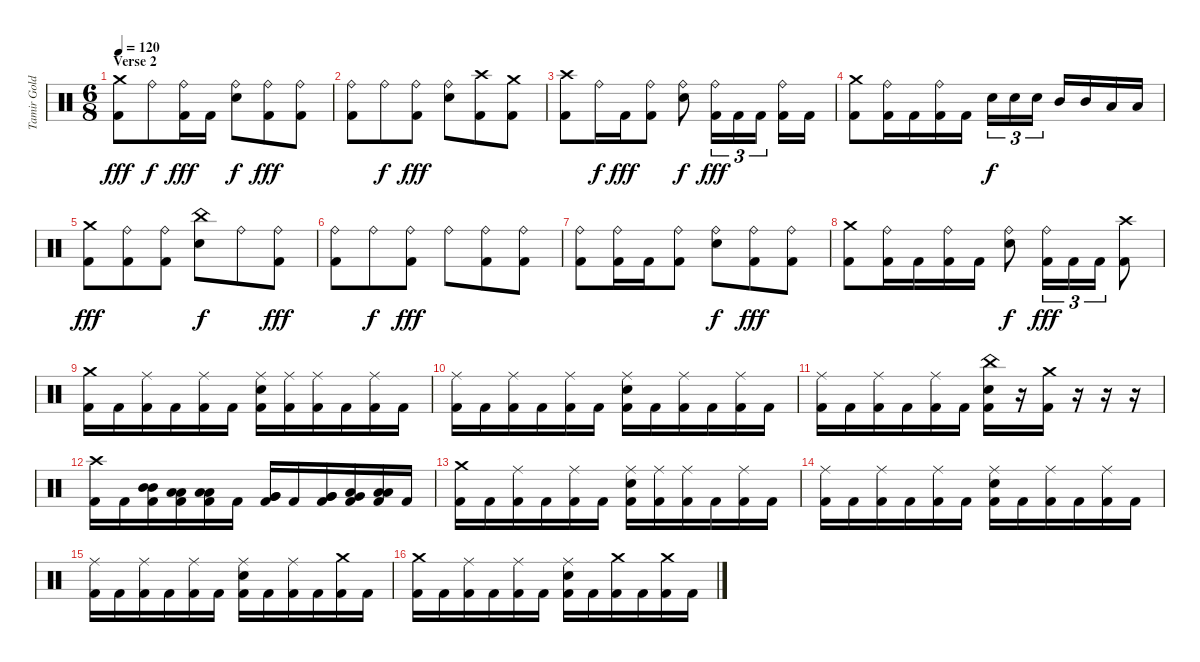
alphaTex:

\track ("Tamir Goldberg" "Tamir Gold") {instrument percussion}
\staff {score}
\articulation defaults
\ts (6 8)
\section ("" "Verse 2")
\tempo 120
\clef neutral
\ks c
("Crash medium (hit)" "Kick (hit) 2").8{dy fff} "Ride (bell)".8{dy f} ("Ride (bell)" "Kick (hit) 2").16{dy fff} "Kick (hit) 2".16 ("Ride (bell)" "Electric Snare (hit)").8{dy f} ("Ride (bell)" "Kick (hit) 2").8{dy fff} ("Ride (bell)" "Kick (hit) 2").8 |
("Ride (bell)" "Kick (hit) 2").8 "Ride (bell)".8{dy f} ("Ride (bell)" "Kick (hit) 2").8{dy fff} ("Ride (bell)" "Electric Snare (hit)").8 ("Crash high (hit)" "Kick (hit) 2").8 ("Crash medium (hit)" "Kick (hit) 2").8 |
("Crash high (hit)" "Kick (hit) 2").8 "Ride (bell)".16{dy f} "Kick (hit) 2".16{dy fff} ("Ride (bell)" "Kick (hit) 2").8 ("Ride (bell)" "Electric Snare (hit)").8{dy f} ("Ride (bell)" "Kick (hit) 2").16{tu (3 2) dy fff} "Kick (hit) 2".16{tu (3 2)} "Kick (hit) 2".16{tu (3 2)} ("Ride (bell)" "Kick (hit) 2").16 "Kick (hit) 2".16 |
("Crash medium (hit)" "Kick (hit) 2").8 ("Ride (bell)" "Kick (hit) 2").16 "Kick (hit) 2".16 ("Ride (bell)" "Kick (hit) 2").16 "Kick (hit) 2".16 "Electric Snare (hit)".16{tu (3 2) dy f} "Electric Snare (hit)".16{tu (3 2)} "Electric Snare (hit)".16{tu (3 2)} "Mid Tom (hit)".16 "Mid Tom (hit)".16 "Low Tom (hit)".16 "Low Tom (hit)".16 |
("Crash medium (hit)" "Kick (hit) 2").8{dy fff} ("Ride (bell)" "Kick (hit) 2").8 ("Ride (bell)" "Kick (hit) 2").8 ("China (hit)" "Electric Snare (hit)").8{dy f} "Ride (bell)".8 ("Ride (bell)" "Kick (hit) 2").8{dy fff} |
("Ride (bell)" "Kick (hit) 2").8 "Ride (bell)".8{dy f} ("Ride (bell)" "Kick (hit) 2").8{dy fff} "Ride (bell)".8 ("Ride (bell)" "Kick (hit) 2").8 ("Ride (bell)" "Kick (hit) 2").8 |
("Ride (bell)" "Kick (hit) 2").8 ("Ride (bell)" "Kick (hit) 2").16 "Kick (hit) 2".16 ("Ride (bell)" "Kick (hit) 2").8 ("Ride (bell)" "Electric Snare (hit)").8{dy f} ("Ride (bell)" "Kick (hit) 2").8{dy fff} ("Ride (bell)" "Kick (hit) 2").8 |
("Crash medium (hit)" "Kick (hit) 2").8 ("Ride (bell)" "Kick (hit) 2").16 "Kick (hit) 2".16 ("Ride (bell)" "Kick (hit) 2").16 "Kick (hit) 2".16 ("Ride (bell)" "Electric Snare (hit)").8{dy f} ("Ride (bell)" "Kick (hit) 2").16{tu (3 2) dy fff} "Kick (hit) 2".16{tu (3 2)} "Kick (hit) 2".16{tu (3 2)} ("Crash high (hit)" "Kick (hit) 2").8 |
("Crash medium (hit)" "Kick (hit) 2").16 "Kick (hit) 2".16 ("Ride (middle)" "Kick (hit) 2").16 "Kick (hit) 2".16 ("Ride (middle)" "Kick (hit) 2").16 "Kick (hit) 2".16 ("Ride (middle)" "Electric Snare (hit)" "Kick (hit) 2").16 ("Ride (middle)" "Kick (hit) 2").16 ("Ride (middle)" "Kick (hit) 2").16 "Kick (hit) 2".16 ("Ride (middle)" "Kick (hit) 2").16 "Kick (hit) 2".16 |
("Ride (middle)" "Kick (hit) 2").16 "Kick (hit) 2".16 ("Ride (middle)" "Kick (hit) 2").16 "Kick (hit) 2".16 ("Ride (middle)" "Kick (hit) 2").16 "Kick (hit) 2".16 ("Ride (middle)" "Electric Snare (hit)" "Kick (hit) 2").16 "Kick (hit) 2".16 ("Ride (middle)" "Kick (hit) 2").16 "Kick (hit) 2".16 ("Ride (middle)" "Kick (hit) 2").16 "Kick (hit) 2".16 |
("Ride (middle)" "Kick (hit) 2").16 "Kick (hit) 2".16 ("Ride (middle)" "Kick (hit) 2").16 "Kick (hit) 2".16 ("Ride (middle)" "Kick (hit) 2").16 "Kick (hit) 2".16 ("China (hit)" "Electric Snare (hit)" "Kick (hit) 2").16 r.16 ("Crash medium (hit)" "Kick (hit) 2").16 r.16 r.16 r.16 |
("Crash high (hit)" "Kick (hit) 2").16 "Kick (hit) 2".16 ("Mid Tom (hit)" "Mid Tom (hit)" "Kick (hit) 2").16 ("Low Tom (hit)" "Low Tom (hit)" "Kick (hit) 2").16 ("Low Tom (hit)" "Low Tom (hit)" "Kick (hit) 2").16 "Kick (hit) 2".16 ("Very Low Tom (hit)" "Very Low Tom (hit)" "Kick (hit) 2").16 "Kick (hit) 2".16 ("Very Low Tom (hit)" "Very Low Tom (hit)" "Kick (hit) 2").16 ("Very Low Tom (hit)" "Low Tom (hit)" "Kick (hit) 2").16 ("Low Tom (hit)" "Low Tom (hit)" "Kick (hit) 2").16 "Kick (hit) 2".16 |
("Crash medium (hit)" "Kick (hit) 2").16 "Kick (hit) 2".16 ("Ride (middle)" "Kick (hit) 2").16 "Kick (hit) 2".16 ("Ride (middle)" "Kick (hit) 2").16 "Kick (hit) 2".16 ("Ride (middle)" "Electric Snare (hit)" "Kick (hit) 2").16 ("Ride (middle)" "Kick (hit) 2").16 ("Ride (middle)" "Kick (hit) 2").16 "Kick (hit) 2".16 ("Ride (middle)" "Kick (hit) 2").16 "Kick (hit) 2".16 |
("Ride (middle)" "Kick (hit) 2").16 "Kick (hit) 2".16 ("Ride (middle)" "Kick (hit) 2").16 "Kick (hit) 2".16 ("Ride (middle)" "Kick (hit) 2").16 "Kick (hit) 2".16 ("Ride (middle)" "Electric Snare (hit)" "Kick (hit) 2").16 "Kick (hit) 2".16 ("Ride (middle)" "Kick (hit) 2").16 "Kick (hit) 2".16 ("Ride (middle)" "Kick (hit) 2").16 "Kick (hit) 2".16 |
("Ride (middle)" "Kick (hit) 2").16 "Kick (hit) 2".16 ("Ride (middle)" "Kick (hit) 2").16 "Kick (hit) 2".16 ("Ride (middle)" "Kick (hit) 2").16 "Kick (hit) 2".16 ("Ride (middle)" "Electric Snare (hit)" "Kick (hit) 2").16 "Kick (hit) 2".16 ("Ride (middle)" "Kick (hit) 2").16 "Kick (hit) 2".16 ("Crash medium (hit)" "Kick (hit) 2").16 "Kick (hit) 2".16 |
("Crash medium (hit)" "Kick (hit) 2").16 "Kick (hit) 2".16 ("Ride (middle)" "Kick (hit) 2").16 "Kick (hit) 2".16 ("Ride (middle)" "Kick (hit) 2").16 "Kick (hit) 2".16 ("Ride (middle)" "Electric Snare (hit)" "Kick (hit) 2").16 "Kick (hit) 2".16 ("Crash medium (hit)" "Kick (hit) 2").16 "Kick (hit) 2".16 ("Crash medium (hit)" "Kick (hit) 2").16 "Kick (hit) 2".16
